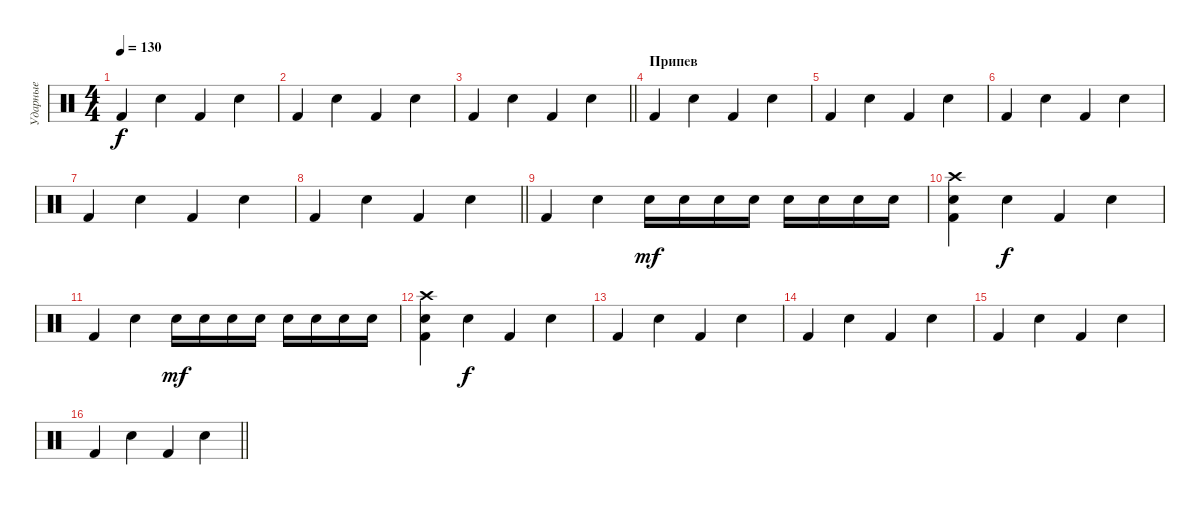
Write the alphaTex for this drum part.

\track ("Ударные" "Ударные") {instrument percussion}
\staff {score}
\articulation defaults
\ts (4 4)
\tempo 130
\clef neutral
\ks c "Kick (hit) 2".4{dy f} "Electric Snare (hit)".4 "Kick (hit) 2".4 "Electric Snare (hit)".4
|
"Kick (hit) 2".4 "Electric Snare (hit)".4 "Kick (hit) 2".4 "Electric Snare (hit)".4 |
\barLineRight lightlight "Kick (hit) 2".4 "Electric Snare (hit)".4 "Kick (hit) 2".4 "Electric Snare (hit)".4
|
\section ("" "Припев")
"Kick (hit) 2".4 "Electric Snare (hit)".4 "Kick (hit) 2".4 "Electric Snare (hit)".4 |
"Kick (hit) 2".4 "Electric Snare (hit)".4 "Kick (hit) 2".4 "Electric Snare (hit)".4 |
"Kick (hit) 2".4 "Electric Snare (hit)".4 "Kick (hit) 2".4 "Electric Snare (hit)".4 |
"Kick (hit) 2".4 "Electric Snare (hit)".4 "Kick (hit) 2".4 "Electric Snare (hit)".4 |
\barLineRight lightlight "Kick (hit) 2".4 "Electric Snare (hit)".4 "Kick (hit) 2".4 "Electric Snare (hit)".4
|
"Kick (hit) 2".4 "Electric Snare (hit)".4 "Electric Snare (hit)".16{dy mf} "Electric Snare (hit)".16 "Electric Snare (hit)".16 "Electric Snare (hit)".16 "Electric Snare (hit)".16 "Electric Snare (hit)".16 "Electric Snare (hit)".16 "Electric Snare (hit)".16 |
("Kick (hit) 2" "Crash high (hit)" "Electric Snare (hit)").4 "Electric Snare (hit)".4{dy f} "Kick (hit) 2".4 "Electric Snare (hit)".4 |
"Kick (hit) 2".4 "Electric Snare (hit)".4 "Electric Snare (hit)".16{dy mf} "Electric Snare (hit)".16 "Electric Snare (hit)".16 "Electric Snare (hit)".16 "Electric Snare (hit)".16 "Electric Snare (hit)".16 "Electric Snare (hit)".16 "Electric Snare (hit)".16 |
("Kick (hit) 2" "Crash high (hit)" "Electric Snare (hit)").4 "Electric Snare (hit)".4{dy f} "Kick (hit) 2".4 "Electric Snare (hit)".4 |
"Kick (hit) 2".4 "Electric Snare (hit)".4 "Kick (hit) 2".4 "Electric Snare (hit)".4 |
"Kick (hit) 2".4 "Electric Snare (hit)".4 "Kick (hit) 2".4 "Electric Snare (hit)".4 |
"Kick (hit) 2".4 "Electric Snare (hit)".4 "Kick (hit) 2".4 "Electric Snare (hit)".4 |
\barLineRight lightlight "Kick (hit) 2".4 "Electric Snare (hit)".4 "Kick (hit) 2".4 "Electric Snare (hit)".4
